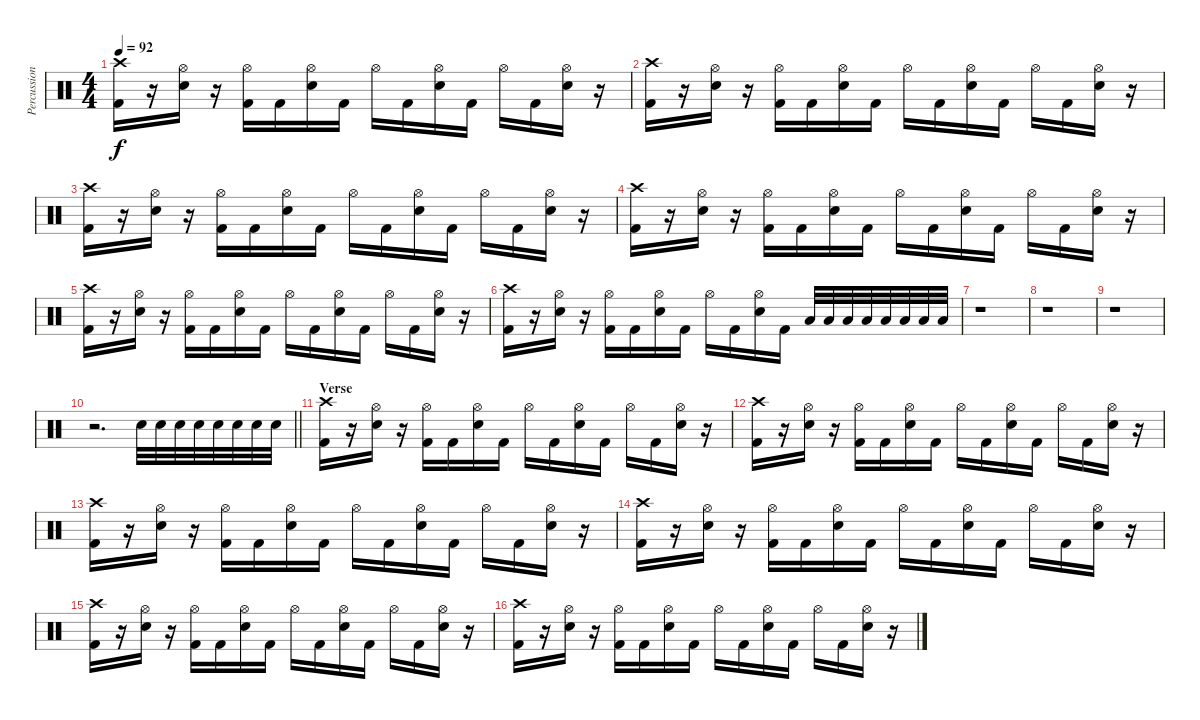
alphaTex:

\track ("Percussion" "Percussion") {instrument percussion}
\staff {score}
\articulation defaults
\ts (4 4)
\tempo 92
\clef neutral
\ks c
("Kick (hit) 2" "Crash high (hit)").16{dy f} r.16 ("Electric Snare (hit)" "Hi-Hat (open)").16 r.16 ("Kick (hit) 2" "Hi-Hat (open)").16 "Kick (hit) 2".16 ("Electric Snare (hit)" "Hi-Hat (open)").16 "Kick (hit) 2".16 "Hi-Hat (open)".16 "Kick (hit) 2".16 ("Electric Snare (hit)" "Hi-Hat (open)").16 "Kick (hit) 2".16 "Hi-Hat (open)".16 "Kick (hit) 2".16 ("Electric Snare (hit)" "Hi-Hat (open)").16 r.16 |
("Kick (hit) 2" "Crash high (hit)").16 r.16 ("Electric Snare (hit)" "Hi-Hat (open)").16 r.16 ("Kick (hit) 2" "Hi-Hat (open)").16 "Kick (hit) 2".16 ("Electric Snare (hit)" "Hi-Hat (open)").16 "Kick (hit) 2".16 "Hi-Hat (open)".16 "Kick (hit) 2".16 ("Electric Snare (hit)" "Hi-Hat (open)").16 "Kick (hit) 2".16 "Hi-Hat (open)".16 "Kick (hit) 2".16 ("Electric Snare (hit)" "Hi-Hat (open)").16 r.16 |
("Kick (hit) 2" "Crash high (hit)").16 r.16 ("Electric Snare (hit)" "Hi-Hat (open)").16 r.16 ("Kick (hit) 2" "Hi-Hat (open)").16 "Kick (hit) 2".16 ("Electric Snare (hit)" "Hi-Hat (open)").16 "Kick (hit) 2".16 "Hi-Hat (open)".16 "Kick (hit) 2".16 ("Electric Snare (hit)" "Hi-Hat (open)").16 "Kick (hit) 2".16 "Hi-Hat (open)".16 "Kick (hit) 2".16 ("Electric Snare (hit)" "Hi-Hat (open)").16 r.16 |
("Kick (hit) 2" "Crash high (hit)").16 r.16 ("Electric Snare (hit)" "Hi-Hat (open)").16 r.16 ("Kick (hit) 2" "Hi-Hat (open)").16 "Kick (hit) 2".16 ("Electric Snare (hit)" "Hi-Hat (open)").16 "Kick (hit) 2".16 "Hi-Hat (open)".16 "Kick (hit) 2".16 ("Electric Snare (hit)" "Hi-Hat (open)").16 "Kick (hit) 2".16 "Hi-Hat (open)".16 "Kick (hit) 2".16 ("Electric Snare (hit)" "Hi-Hat (open)").16 r.16 |
("Kick (hit) 2" "Crash high (hit)").16 r.16 ("Electric Snare (hit)" "Hi-Hat (open)").16 r.16 ("Kick (hit) 2" "Hi-Hat (open)").16 "Kick (hit) 2".16 ("Electric Snare (hit)" "Hi-Hat (open)").16 "Kick (hit) 2".16 "Hi-Hat (open)".16 "Kick (hit) 2".16 ("Electric Snare (hit)" "Hi-Hat (open)").16 "Kick (hit) 2".16 "Hi-Hat (open)".16 "Kick (hit) 2".16 ("Electric Snare (hit)" "Hi-Hat (open)").16 r.16 |
("Kick (hit) 2" "Crash high (hit)").16 r.16 ("Electric Snare (hit)" "Hi-Hat (open)").16 r.16 ("Kick (hit) 2" "Hi-Hat (open)").16 "Kick (hit) 2".16 ("Electric Snare (hit)" "Hi-Hat (open)").16 "Kick (hit) 2".16 "Hi-Hat (open)".16 "Kick (hit) 2".16 ("Electric Snare (hit)" "Hi-Hat (open)").16 "Kick (hit) 2".16 "Low Tom (hit)".32 "Low Tom (hit)".32 "Low Tom (hit)".32 "Low Tom (hit)".32 "Low Floor Tom (hit)".32 "Low Floor Tom (hit)".32 "Low Floor Tom (hit)".32 "Low Floor Tom (hit)".32 |
r.1 |
r.1 |
r.1 |
\barLineRight lightlight
r.2{d} "Electric Snare (hit)".32 "Electric Snare (hit)".32 "Electric Snare (hit)".32 "Electric Snare (hit)".32 "Electric Snare (hit)".32 "Electric Snare (hit)".32 "Electric Snare (hit)".32 "Electric Snare (hit)".32 |
\section ("" "Verse")
("Kick (hit) 2" "Crash high (hit)").16 r.16 ("Electric Snare (hit)" "Hi-Hat (open)").16 r.16 ("Kick (hit) 2" "Hi-Hat (open)").16 "Kick (hit) 2".16 ("Electric Snare (hit)" "Hi-Hat (open)").16 "Kick (hit) 2".16 "Hi-Hat (open)".16 "Kick (hit) 2".16 ("Electric Snare (hit)" "Hi-Hat (open)").16 "Kick (hit) 2".16 "Hi-Hat (open)".16 "Kick (hit) 2".16 ("Electric Snare (hit)" "Hi-Hat (open)").16 r.16 |
("Kick (hit) 2" "Crash high (hit)").16 r.16 ("Electric Snare (hit)" "Hi-Hat (open)").16 r.16 ("Kick (hit) 2" "Hi-Hat (open)").16 "Kick (hit) 2".16 ("Electric Snare (hit)" "Hi-Hat (open)").16 "Kick (hit) 2".16 "Hi-Hat (open)".16 "Kick (hit) 2".16 ("Electric Snare (hit)" "Hi-Hat (open)").16 "Kick (hit) 2".16 "Hi-Hat (open)".16 "Kick (hit) 2".16 ("Electric Snare (hit)" "Hi-Hat (open)").16 r.16 |
("Kick (hit) 2" "Crash high (hit)").16 r.16 ("Electric Snare (hit)" "Hi-Hat (open)").16 r.16 ("Kick (hit) 2" "Hi-Hat (open)").16 "Kick (hit) 2".16 ("Electric Snare (hit)" "Hi-Hat (open)").16 "Kick (hit) 2".16 "Hi-Hat (open)".16 "Kick (hit) 2".16 ("Electric Snare (hit)" "Hi-Hat (open)").16 "Kick (hit) 2".16 "Hi-Hat (open)".16 "Kick (hit) 2".16 ("Electric Snare (hit)" "Hi-Hat (open)").16 r.16 |
("Kick (hit) 2" "Crash high (hit)").16 r.16 ("Electric Snare (hit)" "Hi-Hat (open)").16 r.16 ("Kick (hit) 2" "Hi-Hat (open)").16 "Kick (hit) 2".16 ("Electric Snare (hit)" "Hi-Hat (open)").16 "Kick (hit) 2".16 "Hi-Hat (open)".16 "Kick (hit) 2".16 ("Electric Snare (hit)" "Hi-Hat (open)").16 "Kick (hit) 2".16 "Hi-Hat (open)".16 "Kick (hit) 2".16 ("Electric Snare (hit)" "Hi-Hat (open)").16 r.16 |
("Kick (hit) 2" "Crash high (hit)").16 r.16 ("Electric Snare (hit)" "Hi-Hat (open)").16 r.16 ("Kick (hit) 2" "Hi-Hat (open)").16 "Kick (hit) 2".16 ("Electric Snare (hit)" "Hi-Hat (open)").16 "Kick (hit) 2".16 "Hi-Hat (open)".16 "Kick (hit) 2".16 ("Electric Snare (hit)" "Hi-Hat (open)").16 "Kick (hit) 2".16 "Hi-Hat (open)".16 "Kick (hit) 2".16 ("Electric Snare (hit)" "Hi-Hat (open)").16 r.16 |
("Kick (hit) 2" "Crash high (hit)").16 r.16 ("Electric Snare (hit)" "Hi-Hat (open)").16 r.16 ("Kick (hit) 2" "Hi-Hat (open)").16 "Kick (hit) 2".16 ("Electric Snare (hit)" "Hi-Hat (open)").16 "Kick (hit) 2".16 "Hi-Hat (open)".16 "Kick (hit) 2".16 ("Electric Snare (hit)" "Hi-Hat (open)").16 "Kick (hit) 2".16 "Hi-Hat (open)".16 "Kick (hit) 2".16 ("Electric Snare (hit)" "Hi-Hat (open)").16 r.16
